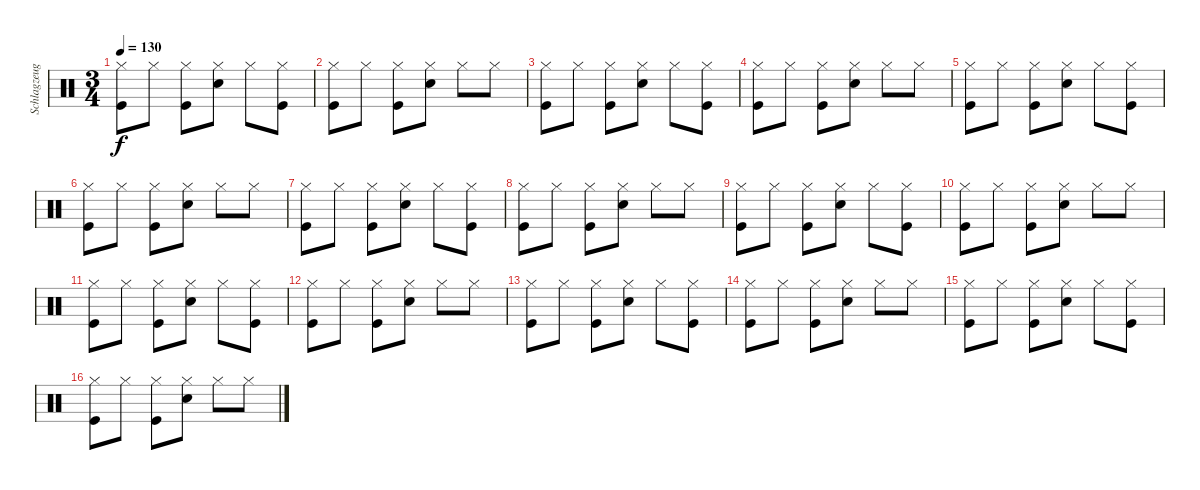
\track ("Schlagzeug" "Schlagzeug") {instrument percussion}
\staff {score}
\articulation defaults
\ts (3 4)
\tempo 130
\clef neutral
\ks c
("Hi-Hat (closed)" "Kick (hit)").8{dy f} "Hi-Hat (closed)".8 ("Hi-Hat (closed)" "Kick (hit)").8 ("Hi-Hat (closed)" "Snare (hit) 2").8 "Hi-Hat (closed)".8 ("Hi-Hat (closed)" "Kick (hit)").8 |
("Hi-Hat (closed)" "Kick (hit)").8 "Hi-Hat (closed)".8 ("Hi-Hat (closed)" "Kick (hit)").8 ("Hi-Hat (closed)" "Snare (hit) 2").8 "Hi-Hat (closed)".8 "Hi-Hat (closed)".8 |
("Hi-Hat (closed)" "Kick (hit)").8 "Hi-Hat (closed)".8 ("Hi-Hat (closed)" "Kick (hit)").8 ("Hi-Hat (closed)" "Snare (hit) 2").8 "Hi-Hat (closed)".8 ("Hi-Hat (closed)" "Kick (hit)").8 |
("Hi-Hat (closed)" "Kick (hit)").8 "Hi-Hat (closed)".8 ("Hi-Hat (closed)" "Kick (hit)").8 ("Hi-Hat (closed)" "Snare (hit) 2").8 "Hi-Hat (closed)".8 "Hi-Hat (closed)".8 |
("Hi-Hat (closed)" "Kick (hit)").8 "Hi-Hat (closed)".8 ("Hi-Hat (closed)" "Kick (hit)").8 ("Hi-Hat (closed)" "Snare (hit) 2").8 "Hi-Hat (closed)".8 ("Hi-Hat (closed)" "Kick (hit)").8 |
("Hi-Hat (closed)" "Kick (hit)").8 "Hi-Hat (closed)".8 ("Hi-Hat (closed)" "Kick (hit)").8 ("Hi-Hat (closed)" "Snare (hit) 2").8 "Hi-Hat (closed)".8 "Hi-Hat (closed)".8 |
("Hi-Hat (closed)" "Kick (hit)").8 "Hi-Hat (closed)".8 ("Hi-Hat (closed)" "Kick (hit)").8 ("Hi-Hat (closed)" "Snare (hit) 2").8 "Hi-Hat (closed)".8 ("Hi-Hat (closed)" "Kick (hit)").8 |
("Hi-Hat (closed)" "Kick (hit)").8 "Hi-Hat (closed)".8 ("Hi-Hat (closed)" "Kick (hit)").8 ("Hi-Hat (closed)" "Snare (hit) 2").8 "Hi-Hat (closed)".8 "Hi-Hat (closed)".8 |
("Hi-Hat (closed)" "Kick (hit)").8 "Hi-Hat (closed)".8 ("Hi-Hat (closed)" "Kick (hit)").8 ("Hi-Hat (closed)" "Snare (hit) 2").8 "Hi-Hat (closed)".8 ("Hi-Hat (closed)" "Kick (hit)").8 |
("Hi-Hat (closed)" "Kick (hit)").8 "Hi-Hat (closed)".8 ("Hi-Hat (closed)" "Kick (hit)").8 ("Hi-Hat (closed)" "Snare (hit) 2").8 "Hi-Hat (closed)".8 "Hi-Hat (closed)".8 |
("Hi-Hat (closed)" "Kick (hit)").8 "Hi-Hat (closed)".8 ("Hi-Hat (closed)" "Kick (hit)").8 ("Hi-Hat (closed)" "Snare (hit) 2").8 "Hi-Hat (closed)".8 ("Hi-Hat (closed)" "Kick (hit)").8 |
("Hi-Hat (closed)" "Kick (hit)").8 "Hi-Hat (closed)".8 ("Hi-Hat (closed)" "Kick (hit)").8 ("Hi-Hat (closed)" "Snare (hit) 2").8 "Hi-Hat (closed)".8 "Hi-Hat (closed)".8 |
("Hi-Hat (closed)" "Kick (hit)").8 "Hi-Hat (closed)".8 ("Hi-Hat (closed)" "Kick (hit)").8 ("Hi-Hat (closed)" "Snare (hit) 2").8 "Hi-Hat (closed)".8 ("Hi-Hat (closed)" "Kick (hit)").8 |
("Hi-Hat (closed)" "Kick (hit)").8 "Hi-Hat (closed)".8 ("Hi-Hat (closed)" "Kick (hit)").8 ("Hi-Hat (closed)" "Snare (hit) 2").8 "Hi-Hat (closed)".8 "Hi-Hat (closed)".8 |
("Hi-Hat (closed)" "Kick (hit)").8 "Hi-Hat (closed)".8 ("Hi-Hat (closed)" "Kick (hit)").8 ("Hi-Hat (closed)" "Snare (hit) 2").8 "Hi-Hat (closed)".8 ("Hi-Hat (closed)" "Kick (hit)").8 |
("Hi-Hat (closed)" "Kick (hit)").8 "Hi-Hat (closed)".8 ("Hi-Hat (closed)" "Kick (hit)").8 ("Hi-Hat (closed)" "Snare (hit) 2").8 "Hi-Hat (closed)".8 "Hi-Hat (closed)".8
